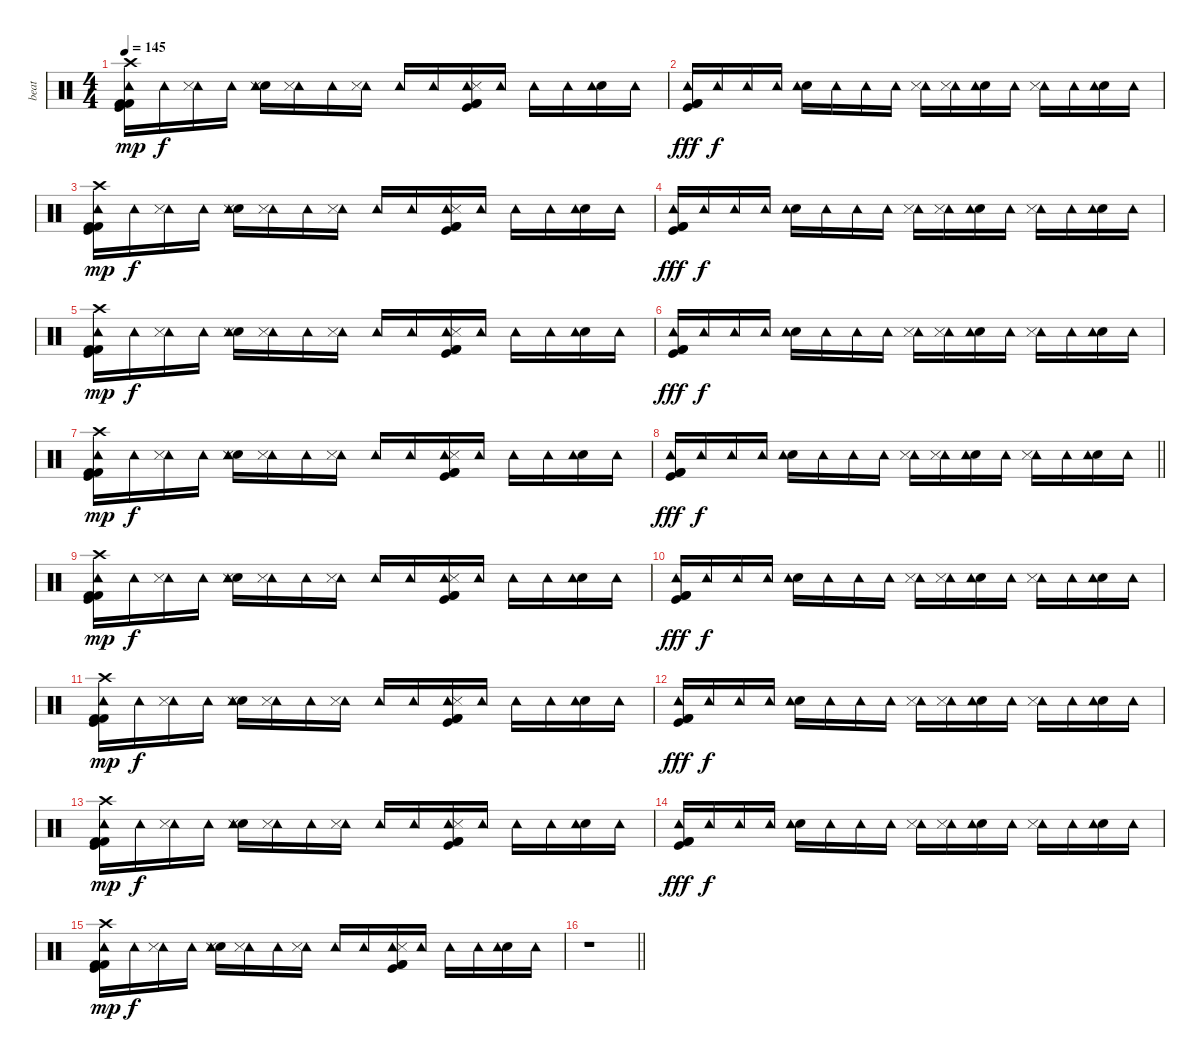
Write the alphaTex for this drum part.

\track ("beat" "beat") {instrument percussion}
\staff {score}
\articulation defaults
\ts (4 4)
\tempo 145
\clef neutral
\ks c
("Kick (hit)" "Kick (hit) 2" "Kick (hit) 2" "Tambourine (hit)" "Crash high (hit)").16{dy mp} "Tambourine (hit)".16{dy f} ("Tambourine (hit)" "Snare (side stick) 3").16 "Tambourine (hit)".16 ("Electric Snare (hit)" "Tambourine (hit)" "Snare (side stick) 3").16 ("Tambourine (hit)" "Snare (side stick) 3").16 "Tambourine (hit)".16 ("Tambourine (hit)" "Snare (side stick) 3").16 "Tambourine (hit)".16 "Tambourine (hit)".16 ("Kick (hit)" "Kick (hit) 2" "Kick (hit) 2" "Tambourine (hit)" "Snare (side stick) 3").16 "Tambourine (hit)".16 "Tambourine (hit)".16 "Tambourine (hit)".16 ("Electric Snare (hit)" "Tambourine (hit)").16 "Tambourine (hit)".16 |
("Kick (hit)" "Kick (hit) 2" "Kick (hit) 2" "Tambourine (hit)").16{dy fff} "Tambourine (hit)".16{dy f} "Tambourine (hit)".16 "Tambourine (hit)".16 ("Electric Snare (hit)" "Tambourine (hit)").16 "Tambourine (hit)".16 "Tambourine (hit)".16 "Tambourine (hit)".16 ("Tambourine (hit)" "Snare (side stick) 3").16 ("Tambourine (hit)" "Snare (side stick) 3").16 ("Electric Snare (hit)" "Tambourine (hit)").16 "Tambourine (hit)".16 ("Tambourine (hit)" "Snare (side stick) 3").16 "Tambourine (hit)".16 ("Electric Snare (hit)" "Tambourine (hit)").16 "Tambourine (hit)".16 |
("Kick (hit)" "Kick (hit) 2" "Kick (hit) 2" "Tambourine (hit)" "Crash high (hit)").16{dy mp} "Tambourine (hit)".16{dy f} ("Tambourine (hit)" "Snare (side stick) 3").16 "Tambourine (hit)".16 ("Electric Snare (hit)" "Tambourine (hit)" "Snare (side stick) 3").16 ("Tambourine (hit)" "Snare (side stick) 3").16 "Tambourine (hit)".16 ("Tambourine (hit)" "Snare (side stick) 3").16 "Tambourine (hit)".16 "Tambourine (hit)".16 ("Kick (hit)" "Kick (hit) 2" "Kick (hit) 2" "Tambourine (hit)" "Snare (side stick) 3").16 "Tambourine (hit)".16 "Tambourine (hit)".16 "Tambourine (hit)".16 ("Electric Snare (hit)" "Tambourine (hit)").16 "Tambourine (hit)".16 |
("Kick (hit)" "Kick (hit) 2" "Kick (hit) 2" "Tambourine (hit)").16{dy fff} "Tambourine (hit)".16{dy f} "Tambourine (hit)".16 "Tambourine (hit)".16 ("Electric Snare (hit)" "Tambourine (hit)").16 "Tambourine (hit)".16 "Tambourine (hit)".16 "Tambourine (hit)".16 ("Tambourine (hit)" "Snare (side stick) 3").16 ("Tambourine (hit)" "Snare (side stick) 3").16 ("Electric Snare (hit)" "Tambourine (hit)").16 "Tambourine (hit)".16 ("Tambourine (hit)" "Snare (side stick) 3").16 "Tambourine (hit)".16 ("Electric Snare (hit)" "Tambourine (hit)").16 "Tambourine (hit)".16 |
("Kick (hit)" "Kick (hit) 2" "Kick (hit) 2" "Tambourine (hit)" "Crash high (hit)").16{dy mp} "Tambourine (hit)".16{dy f} ("Tambourine (hit)" "Snare (side stick) 3").16 "Tambourine (hit)".16 ("Electric Snare (hit)" "Tambourine (hit)" "Snare (side stick) 3").16 ("Tambourine (hit)" "Snare (side stick) 3").16 "Tambourine (hit)".16 ("Tambourine (hit)" "Snare (side stick) 3").16 "Tambourine (hit)".16 "Tambourine (hit)".16 ("Kick (hit)" "Kick (hit) 2" "Kick (hit) 2" "Tambourine (hit)" "Snare (side stick) 3").16 "Tambourine (hit)".16 "Tambourine (hit)".16 "Tambourine (hit)".16 ("Electric Snare (hit)" "Tambourine (hit)").16 "Tambourine (hit)".16 |
("Kick (hit)" "Kick (hit) 2" "Kick (hit) 2" "Tambourine (hit)").16{dy fff} "Tambourine (hit)".16{dy f} "Tambourine (hit)".16 "Tambourine (hit)".16 ("Electric Snare (hit)" "Tambourine (hit)").16 "Tambourine (hit)".16 "Tambourine (hit)".16 "Tambourine (hit)".16 ("Tambourine (hit)" "Snare (side stick) 3").16 ("Tambourine (hit)" "Snare (side stick) 3").16 ("Electric Snare (hit)" "Tambourine (hit)").16 "Tambourine (hit)".16 ("Tambourine (hit)" "Snare (side stick) 3").16 "Tambourine (hit)".16 ("Electric Snare (hit)" "Tambourine (hit)").16 "Tambourine (hit)".16 |
("Kick (hit)" "Kick (hit) 2" "Kick (hit) 2" "Tambourine (hit)" "Crash high (hit)").16{dy mp} "Tambourine (hit)".16{dy f} ("Tambourine (hit)" "Snare (side stick) 3").16 "Tambourine (hit)".16 ("Electric Snare (hit)" "Tambourine (hit)" "Snare (side stick) 3").16 ("Tambourine (hit)" "Snare (side stick) 3").16 "Tambourine (hit)".16 ("Tambourine (hit)" "Snare (side stick) 3").16 "Tambourine (hit)".16 "Tambourine (hit)".16 ("Kick (hit)" "Kick (hit) 2" "Kick (hit) 2" "Tambourine (hit)" "Snare (side stick) 3").16 "Tambourine (hit)".16 "Tambourine (hit)".16 "Tambourine (hit)".16 ("Electric Snare (hit)" "Tambourine (hit)").16 "Tambourine (hit)".16 |
\barLineRight lightlight
("Kick (hit)" "Kick (hit) 2" "Kick (hit) 2" "Tambourine (hit)").16{dy fff} "Tambourine (hit)".16{dy f} "Tambourine (hit)".16 "Tambourine (hit)".16 ("Electric Snare (hit)" "Tambourine (hit)").16 "Tambourine (hit)".16 "Tambourine (hit)".16 "Tambourine (hit)".16 ("Tambourine (hit)" "Snare (side stick) 3").16 ("Tambourine (hit)" "Snare (side stick) 3").16 ("Electric Snare (hit)" "Tambourine (hit)").16 "Tambourine (hit)".16 ("Tambourine (hit)" "Snare (side stick) 3").16 "Tambourine (hit)".16 ("Electric Snare (hit)" "Tambourine (hit)").16 "Tambourine (hit)".16 |
("Kick (hit)" "Kick (hit) 2" "Kick (hit) 2" "Tambourine (hit)" "Crash high (hit)").16{dy mp} "Tambourine (hit)".16{dy f} ("Tambourine (hit)" "Snare (side stick) 3").16 "Tambourine (hit)".16 ("Electric Snare (hit)" "Tambourine (hit)" "Snare (side stick) 3").16 ("Tambourine (hit)" "Snare (side stick) 3").16 "Tambourine (hit)".16 ("Tambourine (hit)" "Snare (side stick) 3").16 "Tambourine (hit)".16 "Tambourine (hit)".16 ("Kick (hit)" "Kick (hit) 2" "Kick (hit) 2" "Tambourine (hit)" "Snare (side stick) 3").16 "Tambourine (hit)".16 "Tambourine (hit)".16 "Tambourine (hit)".16 ("Electric Snare (hit)" "Tambourine (hit)").16 "Tambourine (hit)".16 |
("Kick (hit)" "Kick (hit) 2" "Kick (hit) 2" "Tambourine (hit)").16{dy fff} "Tambourine (hit)".16{dy f} "Tambourine (hit)".16 "Tambourine (hit)".16 ("Electric Snare (hit)" "Tambourine (hit)").16 "Tambourine (hit)".16 "Tambourine (hit)".16 "Tambourine (hit)".16 ("Tambourine (hit)" "Snare (side stick) 3").16 ("Tambourine (hit)" "Snare (side stick) 3").16 ("Electric Snare (hit)" "Tambourine (hit)").16 "Tambourine (hit)".16 ("Tambourine (hit)" "Snare (side stick) 3").16 "Tambourine (hit)".16 ("Electric Snare (hit)" "Tambourine (hit)").16 "Tambourine (hit)".16 |
("Kick (hit)" "Kick (hit) 2" "Kick (hit) 2" "Tambourine (hit)" "Crash high (hit)").16{dy mp} "Tambourine (hit)".16{dy f} ("Tambourine (hit)" "Snare (side stick) 3").16 "Tambourine (hit)".16 ("Electric Snare (hit)" "Tambourine (hit)" "Snare (side stick) 3").16 ("Tambourine (hit)" "Snare (side stick) 3").16 "Tambourine (hit)".16 ("Tambourine (hit)" "Snare (side stick) 3").16 "Tambourine (hit)".16 "Tambourine (hit)".16 ("Kick (hit)" "Kick (hit) 2" "Kick (hit) 2" "Tambourine (hit)" "Snare (side stick) 3").16 "Tambourine (hit)".16 "Tambourine (hit)".16 "Tambourine (hit)".16 ("Electric Snare (hit)" "Tambourine (hit)").16 "Tambourine (hit)".16 |
("Kick (hit)" "Kick (hit) 2" "Kick (hit) 2" "Tambourine (hit)").16{dy fff} "Tambourine (hit)".16{dy f} "Tambourine (hit)".16 "Tambourine (hit)".16 ("Electric Snare (hit)" "Tambourine (hit)").16 "Tambourine (hit)".16 "Tambourine (hit)".16 "Tambourine (hit)".16 ("Tambourine (hit)" "Snare (side stick) 3").16 ("Tambourine (hit)" "Snare (side stick) 3").16 ("Electric Snare (hit)" "Tambourine (hit)").16 "Tambourine (hit)".16 ("Tambourine (hit)" "Snare (side stick) 3").16 "Tambourine (hit)".16 ("Electric Snare (hit)" "Tambourine (hit)").16 "Tambourine (hit)".16 |
("Kick (hit)" "Kick (hit) 2" "Kick (hit) 2" "Tambourine (hit)" "Crash high (hit)").16{dy mp} "Tambourine (hit)".16{dy f} ("Tambourine (hit)" "Snare (side stick) 3").16 "Tambourine (hit)".16 ("Electric Snare (hit)" "Tambourine (hit)" "Snare (side stick) 3").16 ("Tambourine (hit)" "Snare (side stick) 3").16 "Tambourine (hit)".16 ("Tambourine (hit)" "Snare (side stick) 3").16 "Tambourine (hit)".16 "Tambourine (hit)".16 ("Kick (hit)" "Kick (hit) 2" "Kick (hit) 2" "Tambourine (hit)" "Snare (side stick) 3").16 "Tambourine (hit)".16 "Tambourine (hit)".16 "Tambourine (hit)".16 ("Electric Snare (hit)" "Tambourine (hit)").16 "Tambourine (hit)".16 |
("Kick (hit)" "Kick (hit) 2" "Kick (hit) 2" "Tambourine (hit)").16{dy fff} "Tambourine (hit)".16{dy f} "Tambourine (hit)".16 "Tambourine (hit)".16 ("Electric Snare (hit)" "Tambourine (hit)").16 "Tambourine (hit)".16 "Tambourine (hit)".16 "Tambourine (hit)".16 ("Tambourine (hit)" "Snare (side stick) 3").16 ("Tambourine (hit)" "Snare (side stick) 3").16 ("Electric Snare (hit)" "Tambourine (hit)").16 "Tambourine (hit)".16 ("Tambourine (hit)" "Snare (side stick) 3").16 "Tambourine (hit)".16 ("Electric Snare (hit)" "Tambourine (hit)").16 "Tambourine (hit)".16 |
("Kick (hit)" "Kick (hit) 2" "Kick (hit) 2" "Tambourine (hit)" "Crash high (hit)").16{dy mp} "Tambourine (hit)".16{dy f} ("Tambourine (hit)" "Snare (side stick) 3").16 "Tambourine (hit)".16 ("Electric Snare (hit)" "Tambourine (hit)" "Snare (side stick) 3").16 ("Tambourine (hit)" "Snare (side stick) 3").16 "Tambourine (hit)".16 ("Tambourine (hit)" "Snare (side stick) 3").16 "Tambourine (hit)".16 "Tambourine (hit)".16 ("Kick (hit)" "Kick (hit) 2" "Kick (hit) 2" "Tambourine (hit)" "Snare (side stick) 3").16 "Tambourine (hit)".16 "Tambourine (hit)".16 "Tambourine (hit)".16 ("Electric Snare (hit)" "Tambourine (hit)").16 "Tambourine (hit)".16 |
\barLineRight lightlight
r.1
